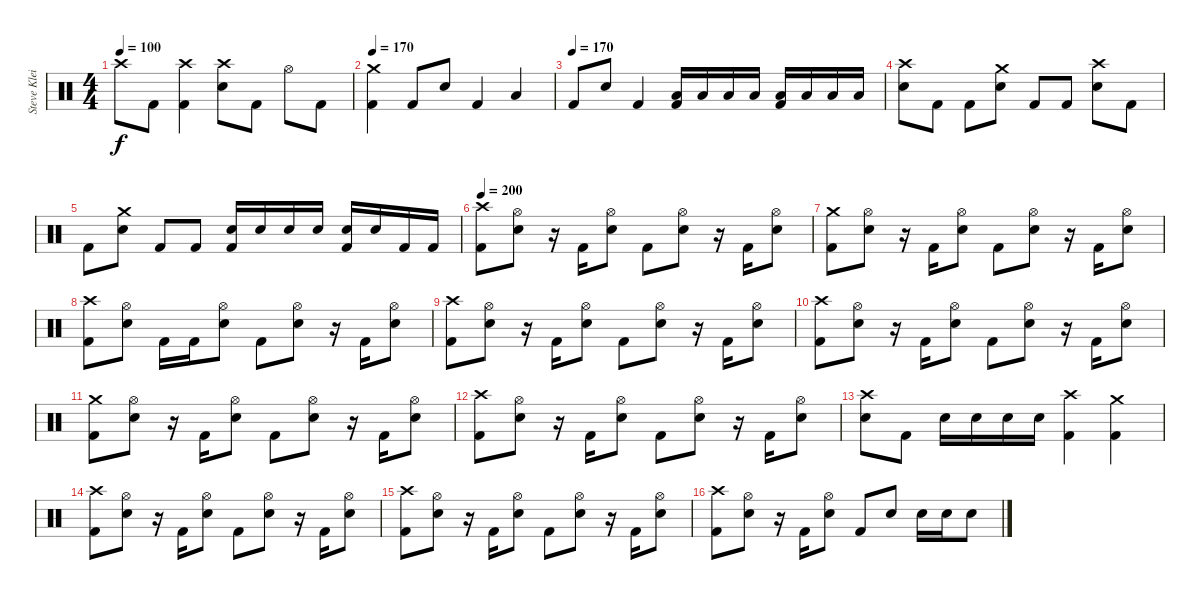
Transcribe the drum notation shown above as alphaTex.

\track ("Steve Kleisath" "Steve Klei") {instrument percussion}
\staff
\articulation defaults
\ts (4 4)
\tempo 100
\clef neutral
\ks c "Crash high (hit)".8{dy f} "Kick (hit) 2".8
("Crash high (hit)" "Kick (hit) 2").4 ("Crash high (hit)" "Electric Snare (hit)").8 "Kick (hit) 2".8 "Hi-Hat (open)".8 "Kick (hit) 2".8 |
\tempo 170
("Crash medium (hit)" "Kick (hit) 2").4 "Kick (hit) 2".8 "Electric Snare (hit)".8 "Kick (hit) 2".4 "Low Tom (hit)".4 |
\tempo (170)
"Kick (hit) 2".8 "Electric Snare (hit)".8 "Kick (hit) 2".4 ("Low Tom (hit)" "Kick (hit) 2").16 "Low Tom (hit)".16 "Low Tom (hit)".16 "Low Tom (hit)".16 ("Low Floor Tom (hit)" "Kick (hit) 2").16 "Low Floor Tom (hit)".16 "Low Floor Tom (hit)".16 "Low Floor Tom (hit)".16 |
("Crash high (hit)" "Electric Snare (hit)").8 "Kick (hit) 2".8 "Kick (hit) 2".8 ("Crash medium (hit)" "Electric Snare (hit)").8 "Kick (hit) 2".8 "Kick (hit) 2".8 ("Crash high (hit)" "Electric Snare (hit)").8 "Kick (hit) 2".8 |
"Kick (hit) 2".8 ("Crash medium (hit)" "Electric Snare (hit)").8 "Kick (hit) 2".8 "Kick (hit) 2".8 ("Electric Snare (hit)" "Kick (hit) 2").16 "Electric Snare (hit)".16 "Electric Snare (hit)".16 "Electric Snare (hit)".16 ("Electric Snare (hit)" "Kick (hit) 2").16 "Electric Snare (hit)".16 "Kick (hit) 2".16 "Kick (hit) 2".16 |
\tempo 200
("Crash high (hit)" "Kick (hit) 2").8 ("Hi-Hat (open)" "Electric Snare (hit)").8 r.16 "Kick (hit) 2".16 ("Hi-Hat (open)" "Electric Snare (hit)").8 "Kick (hit) 2".8 ("Hi-Hat (open)" "Electric Snare (hit)").8 r.16 "Kick (hit) 2".16 ("Hi-Hat (open)" "Electric Snare (hit)").8 |
("Crash medium (hit)" "Kick (hit) 2").8 ("Hi-Hat (open)" "Electric Snare (hit)").8 r.16 "Kick (hit) 2".16 ("Hi-Hat (open)" "Electric Snare (hit)").8 "Kick (hit) 2".8 ("Hi-Hat (open)" "Electric Snare (hit)").8 r.16 "Kick (hit) 2".16 ("Hi-Hat (open)" "Electric Snare (hit)").8 |
("Crash high (hit)" "Kick (hit) 2").8 ("Hi-Hat (open)" "Electric Snare (hit)").8 "Kick (hit) 2".16 "Kick (hit) 2".16 ("Hi-Hat (open)" "Electric Snare (hit)").8 "Kick (hit) 2".8 ("Hi-Hat (open)" "Electric Snare (hit)").8 r.16 "Kick (hit) 2".16 ("Hi-Hat (open)" "Electric Snare (hit)").8 |
("Crash high (hit)" "Kick (hit) 2").8 ("Hi-Hat (open)" "Electric Snare (hit)").8 r.16 "Kick (hit) 2".16 ("Hi-Hat (open)" "Electric Snare (hit)").8 "Kick (hit) 2".8 ("Hi-Hat (open)" "Electric Snare (hit)").8 r.16 "Kick (hit) 2".16 ("Hi-Hat (open)" "Electric Snare (hit)").8 |
("Crash high (hit)" "Kick (hit) 2").8 ("Hi-Hat (open)" "Electric Snare (hit)").8 r.16 "Kick (hit) 2".16 ("Hi-Hat (open)" "Electric Snare (hit)").8 "Kick (hit) 2".8 ("Hi-Hat (open)" "Electric Snare (hit)").8 r.16 "Kick (hit) 2".16 ("Hi-Hat (open)" "Electric Snare (hit)").8 |
("Crash medium (hit)" "Kick (hit) 2").8 ("Hi-Hat (open)" "Electric Snare (hit)").8 r.16 "Kick (hit) 2".16 ("Hi-Hat (open)" "Electric Snare (hit)").8 "Kick (hit) 2".8 ("Hi-Hat (open)" "Electric Snare (hit)").8 r.16 "Kick (hit) 2".16 ("Hi-Hat (open)" "Electric Snare (hit)").8 |
("Crash high (hit)" "Kick (hit) 2").8 ("Hi-Hat (open)" "Electric Snare (hit)").8 r.16 "Kick (hit) 2".16 ("Hi-Hat (open)" "Electric Snare (hit)").8 "Kick (hit) 2".8 ("Hi-Hat (open)" "Electric Snare (hit)").8 r.16 "Kick (hit) 2".16 ("Hi-Hat (open)" "Electric Snare (hit)").8 |
("Crash high (hit)" "Electric Snare (hit)").8 "Kick (hit) 2".8 "Electric Snare (hit)".16 "Electric Snare (hit)".16 "Electric Snare (hit)".16 "Electric Snare (hit)".16 ("Crash high (hit)" "Kick (hit) 2").4 ("Crash medium (hit)" "Kick (hit) 2").4 |
("Crash high (hit)" "Kick (hit) 2").8 ("Hi-Hat (open)" "Electric Snare (hit)").8 r.16 "Kick (hit) 2".16 ("Hi-Hat (open)" "Electric Snare (hit)").8 "Kick (hit) 2".8 ("Hi-Hat (open)" "Electric Snare (hit)").8 r.16 "Kick (hit) 2".16 ("Hi-Hat (open)" "Electric Snare (hit)").8 |
("Crash high (hit)" "Kick (hit) 2").8 ("Hi-Hat (open)" "Electric Snare (hit)").8 r.16 "Kick (hit) 2".16 ("Hi-Hat (open)" "Electric Snare (hit)").8 "Kick (hit) 2".8 ("Hi-Hat (open)" "Electric Snare (hit)").8 r.16 "Kick (hit) 2".16 ("Hi-Hat (open)" "Electric Snare (hit)").8 |
("Crash high (hit)" "Kick (hit) 2").8 ("Hi-Hat (open)" "Electric Snare (hit)").8 r.16 "Kick (hit) 2".16 ("Hi-Hat (open)" "Electric Snare (hit)").8 "Kick (hit) 2".8 "Electric Snare (hit)".8 "Electric Snare (hit)".16 "Electric Snare (hit)".16 "Electric Snare (hit)".8
